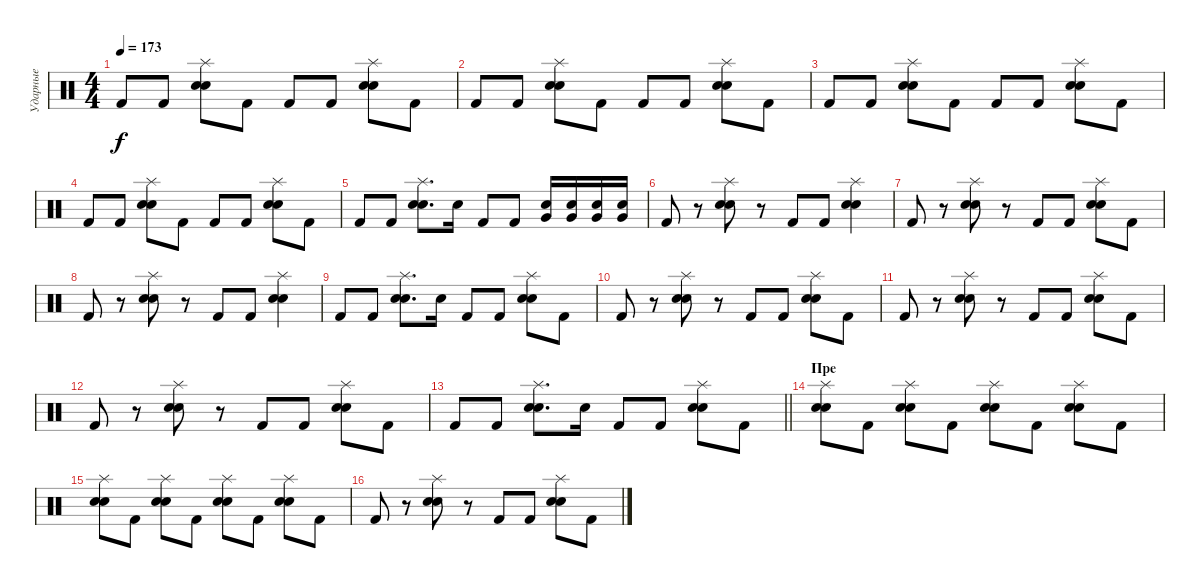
\track ("Ударные" "Ударные") {instrument percussion}
\staff {score}
\articulation defaults
\ts (4 4)
\tempo 173
\clef neutral
\ks c "Kick (hit) 2".8{dy f} "Kick (hit) 2".8
("Splash (hit)" "Electric Snare (hit)" "Snare (hit) 2").8 "Kick (hit) 2".8 "Kick (hit) 2".8 "Kick (hit) 2".8 ("Splash (hit)" "Electric Snare (hit)" "Snare (hit) 2").8 "Kick (hit) 2".8 |
"Kick (hit) 2".8 "Kick (hit) 2".8 ("Splash (hit)" "Electric Snare (hit)" "Snare (hit) 2").8 "Kick (hit) 2".8 "Kick (hit) 2".8 "Kick (hit) 2".8 ("Splash (hit)" "Electric Snare (hit)" "Snare (hit) 2").8 "Kick (hit) 2".8 |
"Kick (hit) 2".8 "Kick (hit) 2".8 ("Splash (hit)" "Electric Snare (hit)" "Snare (hit) 2").8 "Kick (hit) 2".8 "Kick (hit) 2".8 "Kick (hit) 2".8 ("Splash (hit)" "Electric Snare (hit)" "Snare (hit) 2").8 "Kick (hit) 2".8 |
"Kick (hit) 2".8 "Kick (hit) 2".8 ("Splash (hit)" "Electric Snare (hit)" "Snare (hit) 2").8 "Kick (hit) 2".8 "Kick (hit) 2".8 "Kick (hit) 2".8 ("Splash (hit)" "Electric Snare (hit)" "Snare (hit) 2").8 "Kick (hit) 2".8 |
"Kick (hit) 2".8 "Kick (hit) 2".8 ("Splash (hit)" "Electric Snare (hit)" "Snare (hit) 2").8{d} "Electric Snare (hit)".16 "Kick (hit) 2".8 "Kick (hit) 2".8 ("Very Low Tom (hit)" "Snare (hit) 2").16 ("Very Low Tom (hit)" "Snare (hit) 2").16 ("Very Low Tom (hit)" "Snare (hit) 2").16 ("Very Low Tom (hit)" "Snare (hit) 2").16 |
"Kick (hit) 2".8 r.8 ("Splash (hit)" "Electric Snare (hit)" "Snare (hit) 2").8 r.8 "Kick (hit) 2".8 "Kick (hit) 2".8 ("Splash (hit)" "Electric Snare (hit)" "Snare (hit) 2").4 |
"Kick (hit) 2".8 r.8 ("Splash (hit)" "Electric Snare (hit)" "Snare (hit) 2").8 r.8 "Kick (hit) 2".8 "Kick (hit) 2".8 ("Splash (hit)" "Electric Snare (hit)" "Snare (hit) 2").8 "Kick (hit) 2".8 |
"Kick (hit) 2".8 r.8 ("Splash (hit)" "Electric Snare (hit)" "Snare (hit) 2").8 r.8 "Kick (hit) 2".8 "Kick (hit) 2".8 ("Splash (hit)" "Electric Snare (hit)" "Snare (hit) 2").4 |
"Kick (hit) 2".8 "Kick (hit) 2".8 ("Splash (hit)" "Electric Snare (hit)" "Snare (hit) 2").8{d} "Electric Snare (hit)".16 "Kick (hit) 2".8 "Kick (hit) 2".8 ("Splash (hit)" "Electric Snare (hit)" "Snare (hit) 2").8 "Kick (hit) 2".8 |
"Kick (hit) 2".8 r.8 ("Splash (hit)" "Electric Snare (hit)" "Snare (hit) 2").8 r.8 "Kick (hit) 2".8 "Kick (hit) 2".8 ("Splash (hit)" "Electric Snare (hit)" "Snare (hit) 2").8 "Kick (hit) 2".8 |
"Kick (hit) 2".8 r.8 ("Splash (hit)" "Electric Snare (hit)" "Snare (hit) 2").8 r.8 "Kick (hit) 2".8 "Kick (hit) 2".8 ("Splash (hit)" "Electric Snare (hit)" "Snare (hit) 2").8 "Kick (hit) 2".8 |
"Kick (hit) 2".8 r.8 ("Splash (hit)" "Electric Snare (hit)" "Snare (hit) 2").8 r.8 "Kick (hit) 2".8 "Kick (hit) 2".8 ("Splash (hit)" "Electric Snare (hit)" "Snare (hit) 2").8 "Kick (hit) 2".8 |
\barLineRight lightlight "Kick (hit) 2".8 "Kick (hit) 2".8
("Splash (hit)" "Electric Snare (hit)" "Snare (hit) 2").8{d} "Electric Snare (hit)".16 "Kick (hit) 2".8 "Kick (hit) 2".8 ("Splash (hit)" "Electric Snare (hit)" "Snare (hit) 2").8 "Kick (hit) 2".8 |
\section ("" "Пре")
("Splash (hit)" "Electric Snare (hit)" "Snare (hit) 2").8 "Kick (hit) 2".8 ("Splash (hit)" "Electric Snare (hit)" "Snare (hit) 2").8 "Kick (hit) 2".8 ("Splash (hit)" "Electric Snare (hit)" "Snare (hit) 2").8 "Kick (hit) 2".8 ("Splash (hit)" "Electric Snare (hit)" "Snare (hit) 2").8 "Kick (hit) 2".8 |
("Splash (hit)" "Electric Snare (hit)" "Snare (hit) 2").8 "Kick (hit) 2".8 ("Splash (hit)" "Electric Snare (hit)" "Snare (hit) 2").8 "Kick (hit) 2".8 ("Splash (hit)" "Electric Snare (hit)" "Snare (hit) 2").8 "Kick (hit) 2".8 ("Splash (hit)" "Electric Snare (hit)" "Snare (hit) 2").8 "Kick (hit) 2".8 |
"Kick (hit) 2".8 r.8 ("Splash (hit)" "Electric Snare (hit)" "Snare (hit) 2").8 r.8 "Kick (hit) 2".8 "Kick (hit) 2".8 ("Splash (hit)" "Electric Snare (hit)" "Snare (hit) 2").8 "Kick (hit) 2".8
